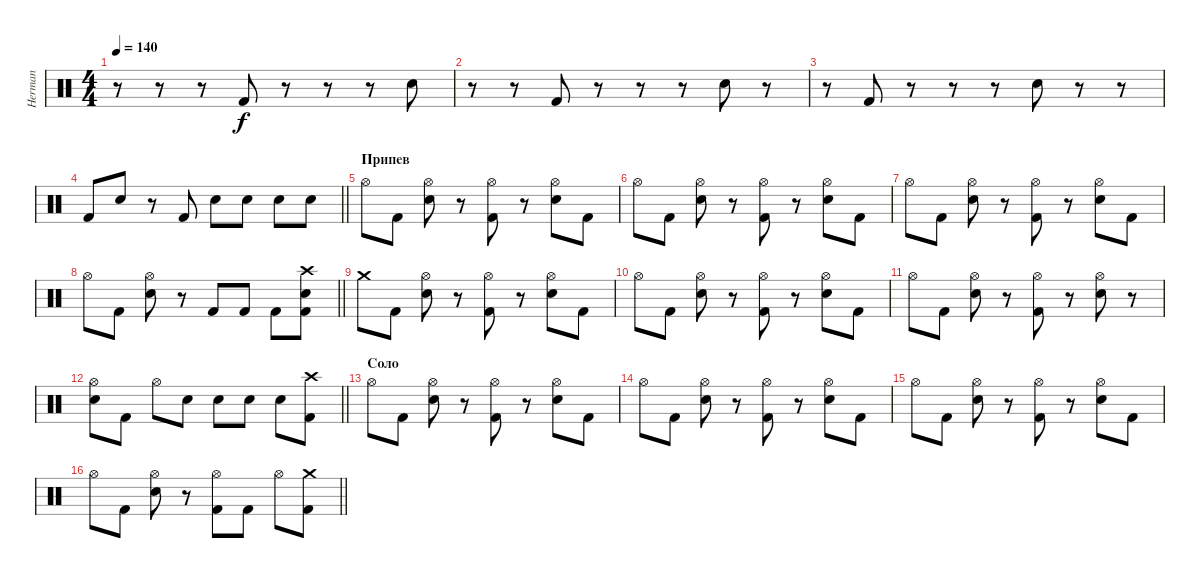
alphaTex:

\track ("Herman" "Herman") {instrument percussion}
\staff {score}
\articulation defaults
\ts (4 4)
\tempo 140
\clef neutral
\ks c
r.8{dy f} r.8 r.8 "Kick (hit) 2".8 r.8 r.8 r.8 "Electric Snare (hit)".8 |
r.8 r.8 "Kick (hit) 2".8 r.8 r.8 r.8 "Electric Snare (hit)".8 r.8 |
r.8 "Kick (hit) 2".8 r.8 r.8 r.8 "Electric Snare (hit)".8 r.8 r.8 |
\barLineRight lightlight "Kick (hit) 2".8 "Electric Snare (hit)".8
r.8 "Kick (hit) 2".8 "Electric Snare (hit)".8 "Electric Snare (hit)".8 "Electric Snare (hit)".8 "Electric Snare (hit)".8 |
\section ("" "Припев")
"Hi-Hat (open)".8 "Kick (hit) 2".8 ("Hi-Hat (open)" "Electric Snare (hit)").8 r.8 ("Hi-Hat (open)" "Kick (hit) 2").8 r.8 ("Hi-Hat (open)" "Electric Snare (hit)").8 "Kick (hit) 2".8 |
"Hi-Hat (open)".8 "Kick (hit) 2".8 ("Hi-Hat (open)" "Electric Snare (hit)").8 r.8 ("Hi-Hat (open)" "Kick (hit) 2").8 r.8 ("Hi-Hat (open)" "Electric Snare (hit)").8 "Kick (hit) 2".8 |
"Hi-Hat (open)".8 "Kick (hit) 2".8 ("Hi-Hat (open)" "Electric Snare (hit)").8 r.8 ("Hi-Hat (open)" "Kick (hit) 2").8 r.8 ("Hi-Hat (open)" "Electric Snare (hit)").8 "Kick (hit) 2".8 |
\barLineRight lightlight "Hi-Hat (open)".8 "Kick (hit) 2".8
("Hi-Hat (open)" "Electric Snare (hit)").8 r.8 "Kick (hit) 2".8 "Kick (hit) 2".8 "Kick (hit) 2".8 ("Crash high (hit)" "Kick (hit) 2" "Electric Snare (hit)").8 |
"Crash medium (hit)".8 "Kick (hit) 2".8 ("Hi-Hat (open)" "Electric Snare (hit)").8 r.8 ("Hi-Hat (open)" "Kick (hit) 2").8 r.8 ("Hi-Hat (open)" "Electric Snare (hit)").8 "Kick (hit) 2".8 |
"Hi-Hat (open)".8 "Kick (hit) 2".8 ("Hi-Hat (open)" "Electric Snare (hit)").8 r.8 ("Hi-Hat (open)" "Kick (hit) 2").8 r.8 ("Hi-Hat (open)" "Electric Snare (hit)").8 "Kick (hit) 2".8 |
"Hi-Hat (open)".8 "Kick (hit) 2".8 ("Hi-Hat (open)" "Electric Snare (hit)").8 r.8 ("Hi-Hat (open)" "Kick (hit) 2").8 r.8 ("Hi-Hat (open)" "Electric Snare (hit)").8 r.8 |
\barLineRight lightlight
("Hi-Hat (open)" "Electric Snare (hit)").8 "Kick (hit) 2".8 "Hi-Hat (open)".8 "Electric Snare (hit)".8 "Electric Snare (hit)".8 "Electric Snare (hit)".8 "Electric Snare (hit)".8 ("Crash high (hit)" "Kick (hit) 2").8 |
\section ("" "Соло")
"Hi-Hat (open)".8 "Kick (hit) 2".8 ("Hi-Hat (open)" "Electric Snare (hit)").8 r.8 ("Hi-Hat (open)" "Kick (hit) 2").8 r.8 ("Hi-Hat (open)" "Electric Snare (hit)").8 "Kick (hit) 2".8 |
"Hi-Hat (open)".8 "Kick (hit) 2".8 ("Hi-Hat (open)" "Electric Snare (hit)").8 r.8 ("Hi-Hat (open)" "Kick (hit) 2").8 r.8 ("Hi-Hat (open)" "Electric Snare (hit)").8 "Kick (hit) 2".8 |
"Hi-Hat (open)".8 "Kick (hit) 2".8 ("Hi-Hat (open)" "Electric Snare (hit)").8 r.8 ("Hi-Hat (open)" "Kick (hit) 2").8 r.8 ("Hi-Hat (open)" "Electric Snare (hit)").8 "Kick (hit) 2".8 |
\barLineRight lightlight "Hi-Hat (open)".8 "Kick (hit) 2".8
("Hi-Hat (open)" "Electric Snare (hit)").8 r.8 ("Hi-Hat (open)" "Kick (hit) 2").8 "Kick (hit) 2".8 "Hi-Hat (open)".8 ("Crash medium (hit)" "Kick (hit) 2").8
